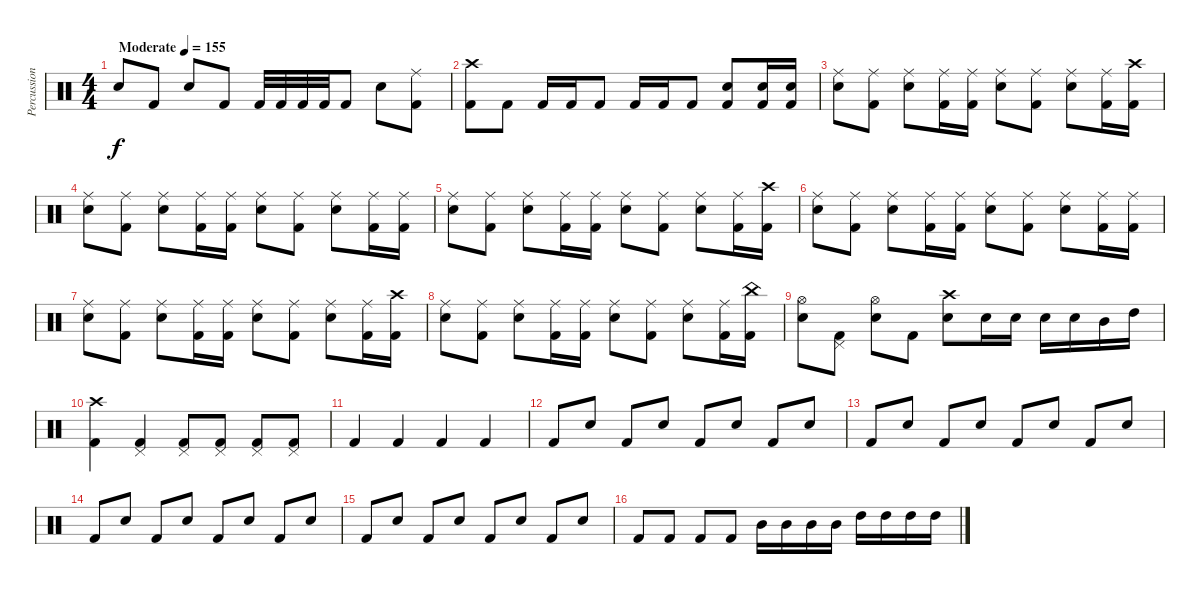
\track ("Percussion" "Percussion") {instrument percussion}
\staff {score}
\articulation defaults
\ts (4 4)
\tempo (155 "Moderate")
\clef neutral
\ks c "Snare (hit) 2".8{dy f} "Kick (hit) 2".8 "Snare (hit) 2".8 "Kick (hit) 2".8 "Kick (hit) 2".32 "Kick (hit) 2".32 "Kick (hit) 2".32 "Kick (hit) 2".32 "Kick (hit) 2".8 "Snare (hit) 2".8
("Ride (middle)" "Kick (hit) 2").8 |
("Crash high (hit)" "Kick (hit) 2").8 "Kick (hit) 2".8 "Kick (hit) 2".16 "Kick (hit) 2".16 "Kick (hit) 2".8 "Kick (hit) 2".16 "Kick (hit) 2".16 "Kick (hit) 2".8 ("Snare (hit) 2" "Kick (hit) 2").8 ("Snare (hit) 2" "Kick (hit) 2").16 ("Snare (hit) 2" "Kick (hit) 2").16 |
("Ride (middle)" "Snare (hit) 2").8 ("Ride (middle)" "Kick (hit) 2").8 ("Ride (middle)" "Snare (hit) 2").8 ("Ride (middle)" "Kick (hit) 2").16 ("Ride (middle)" "Kick (hit) 2").16 ("Ride (middle)" "Snare (hit) 2").8 ("Ride (middle)" "Kick (hit) 2").8 ("Ride (middle)" "Snare (hit) 2").8 ("Ride (middle)" "Kick (hit) 2").16 ("Crash high (hit)" "Kick (hit) 2").16 |
("Ride (middle)" "Snare (hit) 2").8 ("Ride (middle)" "Kick (hit) 2").8 ("Ride (middle)" "Snare (hit) 2").8 ("Ride (middle)" "Kick (hit) 2").16 ("Ride (middle)" "Kick (hit) 2").16 ("Ride (middle)" "Snare (hit) 2").8 ("Ride (middle)" "Kick (hit) 2").8 ("Ride (middle)" "Snare (hit) 2").8 ("Ride (middle)" "Kick (hit) 2").16 ("Ride (middle)" "Kick (hit) 2").16 |
("Ride (middle)" "Snare (hit) 2").8 ("Ride (middle)" "Kick (hit) 2").8 ("Ride (middle)" "Snare (hit) 2").8 ("Ride (middle)" "Kick (hit) 2").16 ("Ride (middle)" "Kick (hit) 2").16 ("Ride (middle)" "Snare (hit) 2").8 ("Ride (middle)" "Kick (hit) 2").8 ("Ride (middle)" "Snare (hit) 2").8 ("Ride (middle)" "Kick (hit) 2").16 ("Crash high (hit)" "Kick (hit) 2").16 |
("Ride (middle)" "Snare (hit) 2").8 ("Ride (middle)" "Kick (hit) 2").8 ("Ride (middle)" "Snare (hit) 2").8 ("Ride (middle)" "Kick (hit) 2").16 ("Ride (middle)" "Kick (hit) 2").16 ("Ride (middle)" "Snare (hit) 2").8 ("Ride (middle)" "Kick (hit) 2").8 ("Ride (middle)" "Snare (hit) 2").8 ("Ride (middle)" "Kick (hit) 2").16 ("Ride (middle)" "Kick (hit) 2").16 |
("Ride (middle)" "Snare (hit) 2").8 ("Ride (middle)" "Kick (hit) 2").8 ("Ride (middle)" "Snare (hit) 2").8 ("Ride (middle)" "Kick (hit) 2").16 ("Ride (middle)" "Kick (hit) 2").16 ("Ride (middle)" "Snare (hit) 2").8 ("Ride (middle)" "Kick (hit) 2").8 ("Ride (middle)" "Snare (hit) 2").8 ("Ride (middle)" "Kick (hit) 2").16 ("Crash high (hit)" "Kick (hit) 2").16 |
("Ride (middle)" "Snare (hit) 2").8 ("Ride (middle)" "Kick (hit) 2").8 ("Ride (middle)" "Snare (hit) 2").8 ("Ride (middle)" "Kick (hit) 2").16 ("Ride (middle)" "Kick (hit) 2").16 ("Ride (middle)" "Snare (hit) 2").8 ("Ride (middle)" "Kick (hit) 2").8 ("Ride (middle)" "Snare (hit) 2").8 ("Ride (middle)" "Kick (hit) 2").16 ("China (hit)" "Kick (hit) 2").16 |
("Hi-Hat (open)" "Snare (hit) 2").8 ("Pedal Hi-Hat (hit)" "Kick (hit) 2").8 ("Hi-Hat (open)" "Snare (hit) 2").8 "Kick (hit) 2".8 ("Crash high (hit)" "Snare (hit) 2").8 "Snare (hit) 2".16 "Snare (hit) 2".16 "Snare (hit) 2".16 "Snare (hit) 2".16 "Mid Tom (hit)".16 "High Tom (hit)".16 |
("Crash high (hit)" "Kick (hit) 2").4 ("Kick (hit) 2" "Pedal Hi-Hat (hit)").4 ("Kick (hit) 2" "Pedal Hi-Hat (hit)").8 ("Kick (hit) 2" "Pedal Hi-Hat (hit)").8 ("Kick (hit) 2" "Pedal Hi-Hat (hit)").8 ("Pedal Hi-Hat (hit)" "Kick (hit) 2").8 |
"Kick (hit) 2".4 "Kick (hit) 2".4 "Kick (hit) 2".4 "Kick (hit) 2".4 |
"Kick (hit) 2".8 "Snare (hit) 2".8 "Kick (hit) 2".8 "Snare (hit) 2".8 "Kick (hit) 2".8 "Snare (hit) 2".8 "Kick (hit) 2".8 "Snare (hit) 2".8 |
"Kick (hit) 2".8 "Snare (hit) 2".8 "Kick (hit) 2".8 "Snare (hit) 2".8 "Kick (hit) 2".8 "Snare (hit) 2".8 "Kick (hit) 2".8 "Snare (hit) 2".8 |
"Kick (hit) 2".8 "Snare (hit) 2".8 "Kick (hit) 2".8 "Snare (hit) 2".8 "Kick (hit) 2".8 "Snare (hit) 2".8 "Kick (hit) 2".8 "Snare (hit) 2".8 |
"Kick (hit) 2".8 "Snare (hit) 2".8 "Kick (hit) 2".8 "Snare (hit) 2".8 "Kick (hit) 2".8 "Snare (hit) 2".8 "Kick (hit) 2".8 "Snare (hit) 2".8 |
"Kick (hit) 2".8 "Kick (hit) 2".8 "Kick (hit) 2".8 "Kick (hit) 2".8 "Mid Tom (hit)".16 "Mid Tom (hit)".16 "Mid Tom (hit)".16 "Mid Tom (hit)".16 "High Tom (hit)".16 "High Tom (hit)".16 "High Tom (hit)".16 "High Tom (hit)".16
